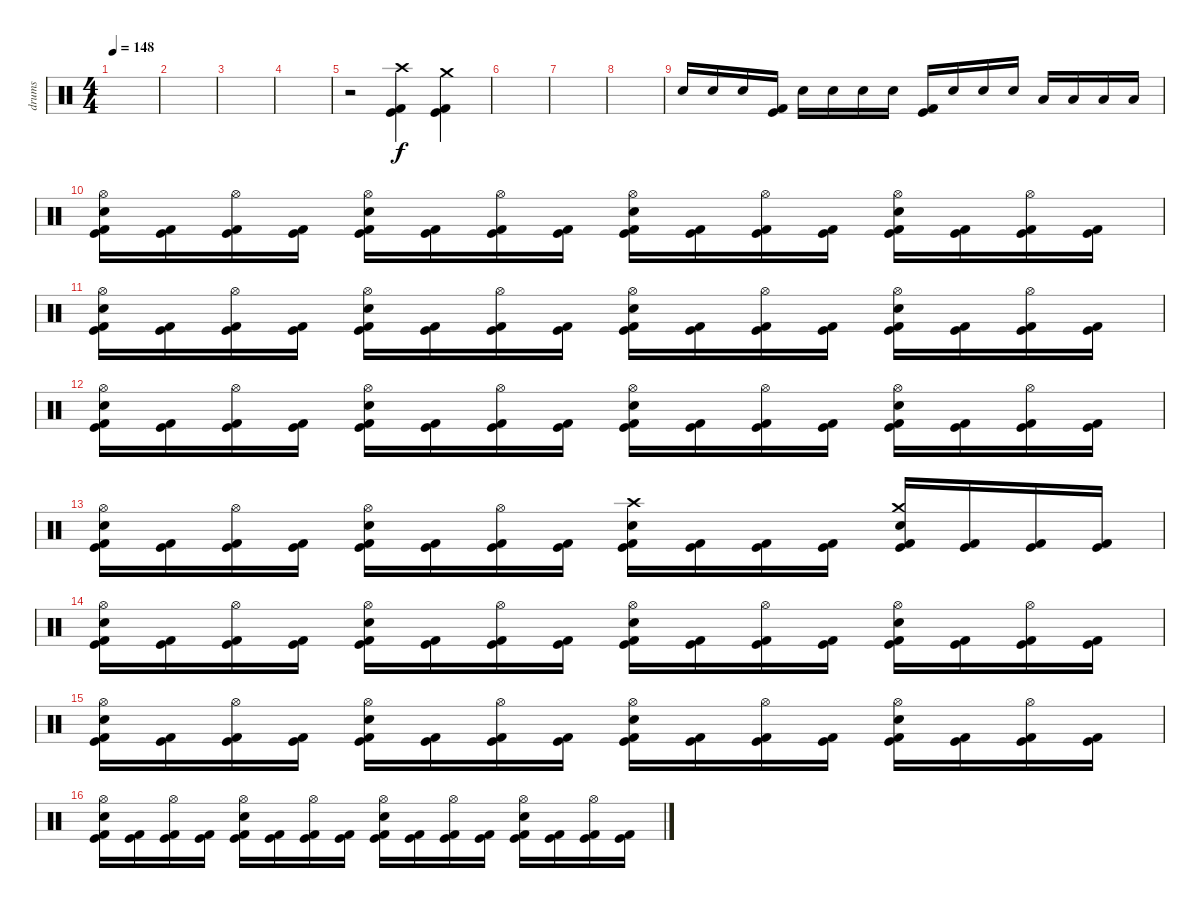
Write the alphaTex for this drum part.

\track ("drums" "drums") {instrument percussion}
\staff {score}
\articulation defaults
\ts (4 4)
\tempo 148
\clef neutral
\ks c
|
|
|
|
r.2 ("Crash high (hit)" "Kick (hit) 2" "Kick (hit)").4 ("Crash medium (hit)" "Kick (hit) 2" "Kick (hit)").4 |
|
|
|
"Snare (hit) 2".16 "Snare (hit) 2".16 "Snare (hit) 2".16 ("Kick (hit)" "Kick (hit) 2").16 "Snare (hit) 2".16 "Snare (hit) 2".16 "Snare (hit) 2".16 "Snare (hit) 2".16 ("Kick (hit)" "Kick (hit) 2").16 "Snare (hit) 2".16 "Snare (hit) 2".16 "Snare (hit) 2".16 "Low Tom (hit)".16 "Low Tom (hit)".16 "Low Tom (hit)".16 "Low Tom (hit)".16 |
("Kick (hit)" "Kick (hit) 2" "Snare (hit) 2" "Hi-Hat (open)").16 ("Kick (hit)" "Kick (hit) 2").16 ("Kick (hit)" "Kick (hit) 2" "Hi-Hat (open)").16 ("Kick (hit)" "Kick (hit) 2").16 ("Kick (hit)" "Kick (hit) 2" "Snare (hit) 2" "Hi-Hat (open)").16 ("Kick (hit)" "Kick (hit) 2").16 ("Kick (hit)" "Kick (hit) 2" "Hi-Hat (open)").16 ("Kick (hit)" "Kick (hit) 2").16 ("Kick (hit)" "Kick (hit) 2" "Snare (hit) 2" "Hi-Hat (open)").16 ("Kick (hit)" "Kick (hit) 2").16 ("Kick (hit)" "Kick (hit) 2" "Hi-Hat (open)").16 ("Kick (hit)" "Kick (hit) 2").16 ("Kick (hit)" "Kick (hit) 2" "Snare (hit) 2" "Hi-Hat (open)").16 ("Kick (hit)" "Kick (hit) 2").16 ("Kick (hit)" "Kick (hit) 2" "Hi-Hat (open)").16 ("Kick (hit)" "Kick (hit) 2").16 |
("Kick (hit)" "Kick (hit) 2" "Snare (hit) 2" "Hi-Hat (open)").16 ("Kick (hit)" "Kick (hit) 2").16 ("Kick (hit)" "Kick (hit) 2" "Hi-Hat (open)").16 ("Kick (hit)" "Kick (hit) 2").16 ("Kick (hit)" "Kick (hit) 2" "Snare (hit) 2" "Hi-Hat (open)").16 ("Kick (hit)" "Kick (hit) 2").16 ("Kick (hit)" "Kick (hit) 2" "Hi-Hat (open)").16 ("Kick (hit)" "Kick (hit) 2").16 ("Kick (hit)" "Kick (hit) 2" "Snare (hit) 2" "Hi-Hat (open)").16 ("Kick (hit)" "Kick (hit) 2").16 ("Kick (hit)" "Kick (hit) 2" "Hi-Hat (open)").16 ("Kick (hit)" "Kick (hit) 2").16 ("Kick (hit)" "Kick (hit) 2" "Snare (hit) 2" "Hi-Hat (open)").16 ("Kick (hit)" "Kick (hit) 2").16 ("Kick (hit)" "Kick (hit) 2" "Hi-Hat (open)").16 ("Kick (hit)" "Kick (hit) 2").16 |
("Kick (hit)" "Kick (hit) 2" "Snare (hit) 2" "Hi-Hat (open)").16 ("Kick (hit)" "Kick (hit) 2").16 ("Kick (hit)" "Kick (hit) 2" "Hi-Hat (open)").16 ("Kick (hit)" "Kick (hit) 2").16 ("Kick (hit)" "Kick (hit) 2" "Snare (hit) 2" "Hi-Hat (open)").16 ("Kick (hit)" "Kick (hit) 2").16 ("Kick (hit)" "Kick (hit) 2" "Hi-Hat (open)").16 ("Kick (hit)" "Kick (hit) 2").16 ("Kick (hit)" "Kick (hit) 2" "Snare (hit) 2" "Hi-Hat (open)").16 ("Kick (hit)" "Kick (hit) 2").16 ("Kick (hit)" "Kick (hit) 2" "Hi-Hat (open)").16 ("Kick (hit)" "Kick (hit) 2").16 ("Kick (hit)" "Kick (hit) 2" "Snare (hit) 2" "Hi-Hat (open)").16 ("Kick (hit)" "Kick (hit) 2").16 ("Kick (hit)" "Kick (hit) 2" "Hi-Hat (open)").16 ("Kick (hit)" "Kick (hit) 2").16 |
("Kick (hit)" "Kick (hit) 2" "Snare (hit) 2" "Hi-Hat (open)").16 ("Kick (hit)" "Kick (hit) 2").16 ("Kick (hit)" "Kick (hit) 2" "Hi-Hat (open)").16 ("Kick (hit)" "Kick (hit) 2").16 ("Kick (hit)" "Kick (hit) 2" "Snare (hit) 2" "Hi-Hat (open)").16 ("Kick (hit)" "Kick (hit) 2").16 ("Kick (hit)" "Kick (hit) 2" "Hi-Hat (open)").16 ("Kick (hit)" "Kick (hit) 2").16 ("Kick (hit)" "Kick (hit) 2" "Snare (hit) 2" "Crash high (hit)").16 ("Kick (hit)" "Kick (hit) 2").16 ("Kick (hit)" "Kick (hit) 2").16 ("Kick (hit)" "Kick (hit) 2").16 ("Kick (hit)" "Kick (hit) 2" "Snare (hit) 2" "Crash medium (hit)").16 ("Kick (hit)" "Kick (hit) 2").16 ("Kick (hit)" "Kick (hit) 2").16 ("Kick (hit)" "Kick (hit) 2").16 |
("Kick (hit)" "Kick (hit) 2" "Snare (hit) 2" "Hi-Hat (open)").16 ("Kick (hit)" "Kick (hit) 2").16 ("Kick (hit)" "Kick (hit) 2" "Hi-Hat (open)").16 ("Kick (hit)" "Kick (hit) 2").16 ("Kick (hit)" "Kick (hit) 2" "Snare (hit) 2" "Hi-Hat (open)").16 ("Kick (hit)" "Kick (hit) 2").16 ("Kick (hit)" "Kick (hit) 2" "Hi-Hat (open)").16 ("Kick (hit)" "Kick (hit) 2").16 ("Kick (hit)" "Kick (hit) 2" "Snare (hit) 2" "Hi-Hat (open)").16 ("Kick (hit)" "Kick (hit) 2").16 ("Kick (hit)" "Kick (hit) 2" "Hi-Hat (open)").16 ("Kick (hit)" "Kick (hit) 2").16 ("Kick (hit)" "Kick (hit) 2" "Snare (hit) 2" "Hi-Hat (open)").16 ("Kick (hit)" "Kick (hit) 2").16 ("Kick (hit)" "Kick (hit) 2" "Hi-Hat (open)").16 ("Kick (hit)" "Kick (hit) 2").16 |
("Kick (hit)" "Kick (hit) 2" "Snare (hit) 2" "Hi-Hat (open)").16 ("Kick (hit)" "Kick (hit) 2").16 ("Kick (hit)" "Kick (hit) 2" "Hi-Hat (open)").16 ("Kick (hit)" "Kick (hit) 2").16 ("Kick (hit)" "Kick (hit) 2" "Snare (hit) 2" "Hi-Hat (open)").16 ("Kick (hit)" "Kick (hit) 2").16 ("Kick (hit)" "Kick (hit) 2" "Hi-Hat (open)").16 ("Kick (hit)" "Kick (hit) 2").16 ("Kick (hit)" "Kick (hit) 2" "Snare (hit) 2" "Hi-Hat (open)").16 ("Kick (hit)" "Kick (hit) 2").16 ("Kick (hit)" "Kick (hit) 2" "Hi-Hat (open)").16 ("Kick (hit)" "Kick (hit) 2").16 ("Kick (hit)" "Kick (hit) 2" "Snare (hit) 2" "Hi-Hat (open)").16 ("Kick (hit)" "Kick (hit) 2").16 ("Kick (hit)" "Kick (hit) 2" "Hi-Hat (open)").16 ("Kick (hit)" "Kick (hit) 2").16 |
("Kick (hit)" "Kick (hit) 2" "Snare (hit) 2" "Hi-Hat (open)").16 ("Kick (hit)" "Kick (hit) 2").16 ("Kick (hit)" "Kick (hit) 2" "Hi-Hat (open)").16 ("Kick (hit)" "Kick (hit) 2").16 ("Kick (hit)" "Kick (hit) 2" "Snare (hit) 2" "Hi-Hat (open)").16 ("Kick (hit)" "Kick (hit) 2").16 ("Kick (hit)" "Kick (hit) 2" "Hi-Hat (open)").16 ("Kick (hit)" "Kick (hit) 2").16 ("Kick (hit)" "Kick (hit) 2" "Snare (hit) 2" "Hi-Hat (open)").16 ("Kick (hit)" "Kick (hit) 2").16 ("Kick (hit)" "Kick (hit) 2" "Hi-Hat (open)").16 ("Kick (hit)" "Kick (hit) 2").16 ("Kick (hit)" "Kick (hit) 2" "Snare (hit) 2" "Hi-Hat (open)").16 ("Kick (hit)" "Kick (hit) 2").16 ("Kick (hit)" "Kick (hit) 2" "Hi-Hat (open)").16 ("Kick (hit)" "Kick (hit) 2").16
